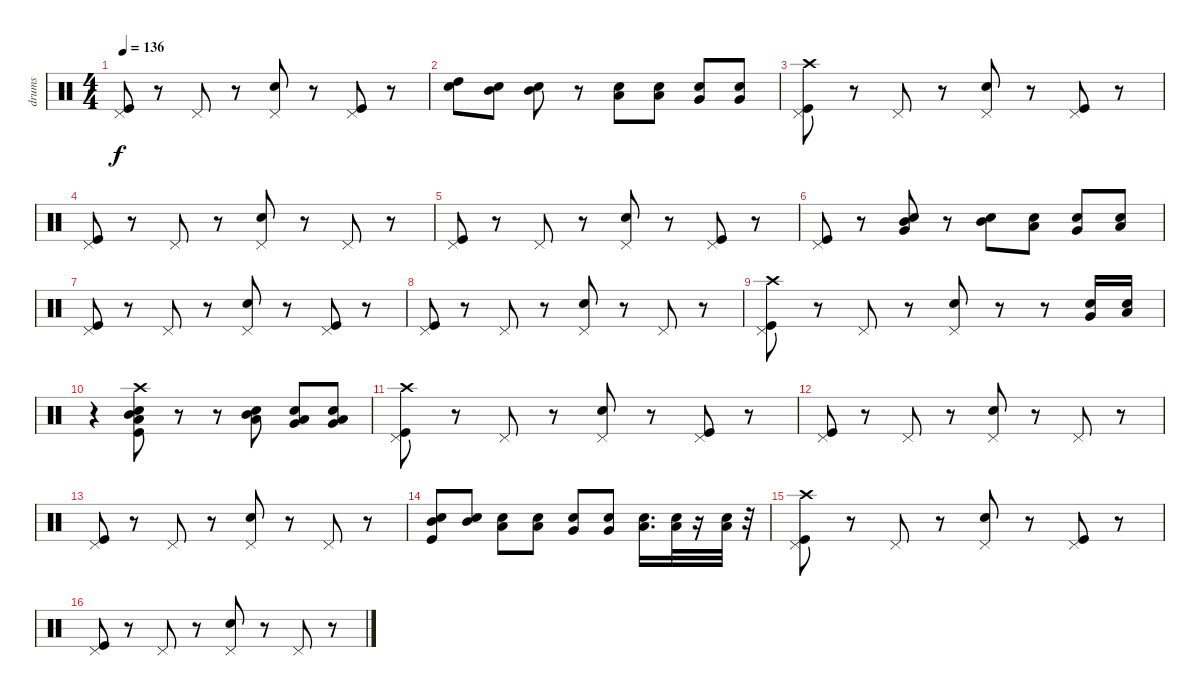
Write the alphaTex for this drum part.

\track ("drums" "drums") {instrument percussion}
\staff {score}
\articulation defaults
\ts (4 4)
\tempo 136
\clef neutral
\ks c
("Kick (hit)" "Pedal Hi-Hat (hit)").8{dy f} r.8 "Pedal Hi-Hat (hit)".8 r.8 ("Snare (hit) 2" "Pedal Hi-Hat (hit)").8 r.8 ("Kick (hit)" "Pedal Hi-Hat (hit)").8 r.8 |
("Snare (hit) 2" "High Tom (hit)").8 ("Snare (hit) 2" "Mid Tom (hit)").8 ("Snare (hit) 2" "Mid Tom (hit)").8 r.8 ("Snare (hit) 2" "Low Tom (hit)").8 ("Low Tom (hit)" "Snare (hit) 2").8 ("Snare (hit) 2" "Very Low Tom (hit)").8 ("Snare (hit) 2" "Very Low Tom (hit)").8 |
("Kick (hit)" "Crash high (hit)" "Pedal Hi-Hat (hit)").8 r.8 "Pedal Hi-Hat (hit)".8 r.8 ("Snare (hit) 2" "Pedal Hi-Hat (hit)").8 r.8 ("Kick (hit)" "Pedal Hi-Hat (hit)").8 r.8 |
("Kick (hit)" "Pedal Hi-Hat (hit)").8 r.8 "Pedal Hi-Hat (hit)".8 r.8 ("Snare (hit) 2" "Pedal Hi-Hat (hit)").8 r.8 "Pedal Hi-Hat (hit)".8 r.8 |
("Kick (hit)" "Pedal Hi-Hat (hit)").8 r.8 "Pedal Hi-Hat (hit)".8 r.8 ("Snare (hit) 2" "Pedal Hi-Hat (hit)").8 r.8 ("Kick (hit)" "Pedal Hi-Hat (hit)").8 r.8 |
("Kick (hit)" "Pedal Hi-Hat (hit)").8 r.8 ("Snare (hit) 2" "Mid Tom (hit)" "Very Low Tom (hit)").8 r.8 ("Snare (hit) 2" "Mid Tom (hit)").8 ("Low Tom (hit)" "Snare (hit) 2").8 ("Snare (hit) 2" "Very Low Tom (hit)").8 ("Snare (hit) 2" "Low Floor Tom (hit)").8 |
("Kick (hit)" "Pedal Hi-Hat (hit)").8 r.8 "Pedal Hi-Hat (hit)".8 r.8 ("Snare (hit) 2" "Pedal Hi-Hat (hit)").8 r.8 ("Kick (hit)" "Pedal Hi-Hat (hit)").8 r.8 |
("Kick (hit)" "Pedal Hi-Hat (hit)").8 r.8 "Pedal Hi-Hat (hit)".8 r.8 ("Snare (hit) 2" "Pedal Hi-Hat (hit)").8 r.8 "Pedal Hi-Hat (hit)".8 r.8 |
("Kick (hit)" "Crash high (hit)" "Pedal Hi-Hat (hit)").8 r.8 "Pedal Hi-Hat (hit)".8 r.8 ("Snare (hit) 2" "Pedal Hi-Hat (hit)").8 r.8 r.8 ("Snare (hit) 2" "Very Low Tom (hit)").16 ("Snare (hit) 2" "Low Floor Tom (hit)").16 |
r.4 ("Snare (hit) 2" "Kick (hit)" "Crash high (hit)" "Mid Tom (hit)" "Low Tom (hit)").8 r.8 r.8 ("Snare (hit) 2" "Mid Tom (hit)" "Low Tom (hit)").8 ("Snare (hit) 2" "Low Tom (hit)" "Very Low Tom (hit)").8 ("Snare (hit) 2" "Low Floor Tom (hit)" "Very Low Tom (hit)").8 |
("Kick (hit)" "Crash high (hit)" "Pedal Hi-Hat (hit)").8 r.8 "Pedal Hi-Hat (hit)".8 r.8 ("Snare (hit) 2" "Pedal Hi-Hat (hit)").8 r.8 ("Kick (hit)" "Pedal Hi-Hat (hit)").8 r.8 |
("Kick (hit)" "Pedal Hi-Hat (hit)").8 r.8 "Pedal Hi-Hat (hit)".8 r.8 ("Snare (hit) 2" "Pedal Hi-Hat (hit)").8 r.8 "Pedal Hi-Hat (hit)".8 r.8 |
("Kick (hit)" "Pedal Hi-Hat (hit)").8 r.8 "Pedal Hi-Hat (hit)".8 r.8 ("Snare (hit) 2" "Pedal Hi-Hat (hit)").8 r.8 "Pedal Hi-Hat (hit)".8 r.8 |
("Kick (hit)" "Snare (hit) 2" "Mid Tom (hit)").8 ("Snare (hit) 2" "Mid Tom (hit)").8 ("Snare (hit) 2" "Low Tom (hit)").8 ("Snare (hit) 2" "Low Tom (hit)").8 ("Snare (hit) 2" "Very Low Tom (hit)").8 ("Snare (hit) 2" "Very Low Tom (hit)").8 ("Low Floor Tom (hit)" "Snare (hit) 2").16{d} ("Snare (hit) 2" "Low Floor Tom (hit)").32 r.16 ("Snare (hit) 2" "Low Floor Tom (hit)").32 r.32 |
("Kick (hit)" "Crash high (hit)" "Pedal Hi-Hat (hit)").8 r.8 "Pedal Hi-Hat (hit)".8 r.8 ("Snare (hit) 2" "Pedal Hi-Hat (hit)").8 r.8 ("Kick (hit)" "Pedal Hi-Hat (hit)").8 r.8 |
("Kick (hit)" "Pedal Hi-Hat (hit)").8 r.8 "Pedal Hi-Hat (hit)".8 r.8 ("Snare (hit) 2" "Pedal Hi-Hat (hit)").8 r.8 "Pedal Hi-Hat (hit)".8 r.8
